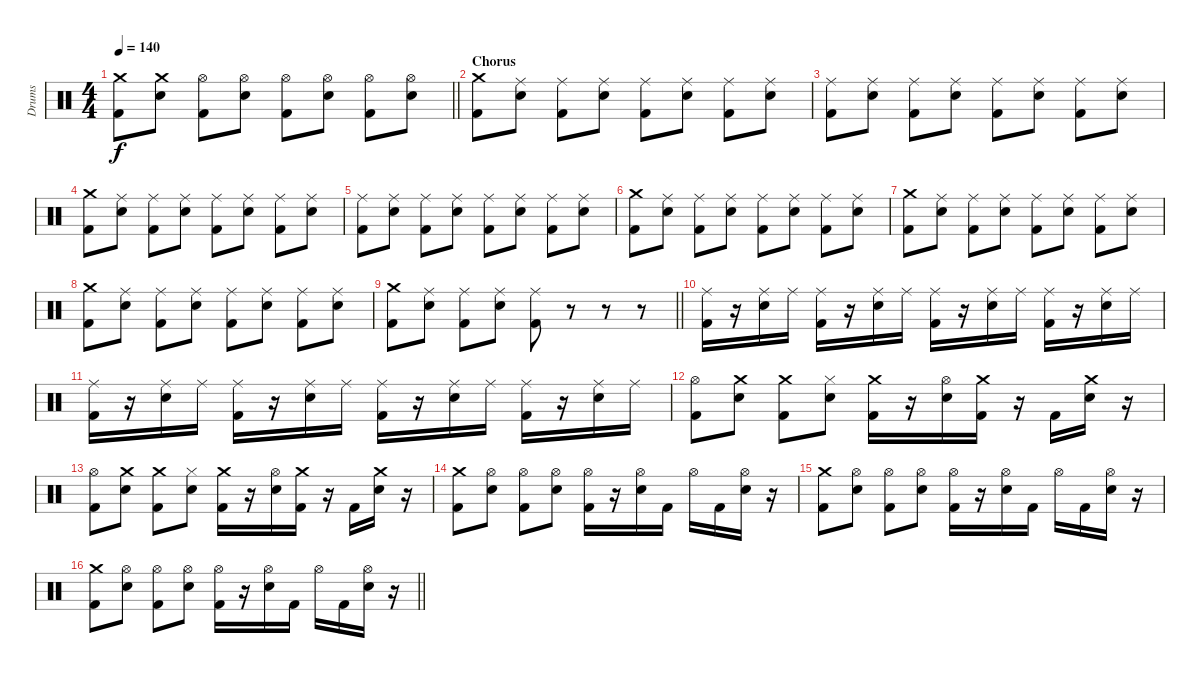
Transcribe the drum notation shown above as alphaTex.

\track ("Drums" "Drums") {instrument percussion}
\staff {score}
\articulation defaults
\ts (4 4)
\tempo 140
\clef neutral
\barLineRight lightlight
\ks c
("Crash medium (hit)" "Kick (hit) 2").8{dy f} ("Crash medium (hit)" "Snare (hit) 2").8 ("Hi-Hat (open)" "Kick (hit) 2").8 ("Hi-Hat (open)" "Snare (hit) 2").8 ("Hi-Hat (open)" "Kick (hit) 2").8 ("Hi-Hat (open)" "Snare (hit) 2").8 ("Hi-Hat (open)" "Kick (hit) 2").8 ("Hi-Hat (open)" "Snare (hit) 2").8 |
\section ("" "Chorus")
("Crash medium (hit)" "Kick (hit) 2").8 ("Ride (middle)" "Snare (hit) 2").8 ("Ride (middle)" "Kick (hit) 2").8 ("Ride (middle)" "Snare (hit) 2").8 ("Ride (middle)" "Kick (hit) 2").8 ("Ride (middle)" "Snare (hit) 2").8 ("Ride (middle)" "Kick (hit) 2").8 ("Ride (middle)" "Snare (hit) 2").8 |
("Ride (middle)" "Kick (hit) 2").8 ("Ride (middle)" "Snare (hit) 2").8 ("Ride (middle)" "Kick (hit) 2").8 ("Ride (middle)" "Snare (hit) 2").8 ("Ride (middle)" "Kick (hit) 2").8 ("Ride (middle)" "Snare (hit) 2").8 ("Ride (middle)" "Kick (hit) 2").8 ("Ride (middle)" "Snare (hit) 2").8 |
("Crash medium (hit)" "Kick (hit) 2").8 ("Ride (middle)" "Snare (hit) 2").8 ("Ride (middle)" "Kick (hit) 2").8 ("Ride (middle)" "Snare (hit) 2").8 ("Ride (middle)" "Kick (hit) 2").8 ("Ride (middle)" "Snare (hit) 2").8 ("Ride (middle)" "Kick (hit) 2").8 ("Ride (middle)" "Snare (hit) 2").8 |
("Ride (middle)" "Kick (hit) 2").8 ("Ride (middle)" "Snare (hit) 2").8 ("Ride (middle)" "Kick (hit) 2").8 ("Ride (middle)" "Snare (hit) 2").8 ("Ride (middle)" "Kick (hit) 2").8 ("Ride (middle)" "Snare (hit) 2").8 ("Ride (middle)" "Kick (hit) 2").8 ("Ride (middle)" "Snare (hit) 2").8 |
("Crash medium (hit)" "Kick (hit) 2").8 ("Ride (middle)" "Snare (hit) 2").8 ("Ride (middle)" "Kick (hit) 2").8 ("Ride (middle)" "Snare (hit) 2").8 ("Ride (middle)" "Kick (hit) 2").8 ("Ride (middle)" "Snare (hit) 2").8 ("Ride (middle)" "Kick (hit) 2").8 ("Ride (middle)" "Snare (hit) 2").8 |
("Crash medium (hit)" "Kick (hit) 2").8 ("Ride (middle)" "Snare (hit) 2").8 ("Ride (middle)" "Kick (hit) 2").8 ("Ride (middle)" "Snare (hit) 2").8 ("Ride (middle)" "Kick (hit) 2").8 ("Ride (middle)" "Snare (hit) 2").8 ("Ride (middle)" "Kick (hit) 2").8 ("Ride (middle)" "Snare (hit) 2").8 |
("Crash medium (hit)" "Kick (hit) 2").8 ("Ride (middle)" "Snare (hit) 2").8 ("Ride (middle)" "Kick (hit) 2").8 ("Ride (middle)" "Snare (hit) 2").8 ("Ride (middle)" "Kick (hit) 2").8 ("Ride (middle)" "Snare (hit) 2").8 ("Ride (middle)" "Kick (hit) 2").8 ("Ride (middle)" "Snare (hit) 2").8 |
\barLineRight lightlight
("Crash medium (hit)" "Kick (hit) 2").8 ("Ride (middle)" "Snare (hit) 2").8 ("Ride (middle)" "Kick (hit) 2").8 ("Ride (middle)" "Snare (hit) 2").8 ("Ride (middle)" "Kick (hit) 2").8 r.8 r.8 r.8 |
\section ("" "")
("Ride (middle)" "Kick (hit) 2").16 r.16 ("Ride (middle)" "Snare (hit) 2").16 "Ride (middle)".16 ("Ride (middle)" "Kick (hit) 2").16 r.16 ("Ride (middle)" "Snare (hit) 2").16 "Ride (middle)".16 ("Ride (middle)" "Kick (hit) 2").16 r.16 ("Ride (middle)" "Snare (hit) 2").16 "Ride (middle)".16 ("Ride (middle)" "Kick (hit) 2").16 r.16 ("Ride (middle)" "Snare (hit) 2").16 "Ride (middle)".16 |
("Ride (middle)" "Kick (hit) 2").16 r.16 ("Ride (middle)" "Snare (hit) 2").16 "Ride (middle)".16 ("Ride (middle)" "Kick (hit) 2").16 r.16 ("Ride (middle)" "Snare (hit) 2").16 "Ride (middle)".16 ("Ride (middle)" "Kick (hit) 2").16 r.16 ("Ride (middle)" "Snare (hit) 2").16 "Ride (middle)".16 ("Ride (middle)" "Kick (hit) 2").16 r.16 ("Ride (middle)" "Snare (hit) 2").16 "Ride (middle)".16 |
("Hi-Hat (open)" "Kick (hit) 2").8 ("Crash medium (hit)" "Snare (hit) 2").8 ("Crash medium (hit)" "Kick (hit) 2").8 ("Hi-Hat (closed)" "Snare (hit) 2").8 ("Crash medium (hit)" "Kick (hit) 2").16 r.16 ("Hi-Hat (open)" "Snare (hit) 2").16 ("Crash medium (hit)" "Kick (hit) 2").16 r.16 "Kick (hit) 2".16 ("Crash medium (hit)" "Snare (hit) 2").16 r.16 |
("Hi-Hat (open)" "Kick (hit) 2").8 ("Crash medium (hit)" "Snare (hit) 2").8 ("Crash medium (hit)" "Kick (hit) 2").8 ("Hi-Hat (closed)" "Snare (hit) 2").8 ("Crash medium (hit)" "Kick (hit) 2").16 r.16 ("Hi-Hat (open)" "Snare (hit) 2").16 ("Crash medium (hit)" "Kick (hit) 2").16 r.16 "Kick (hit) 2".16 ("Crash medium (hit)" "Snare (hit) 2").16 r.16 |
("Crash medium (hit)" "Kick (hit) 2").8 ("Hi-Hat (open)" "Snare (hit) 2").8 ("Hi-Hat (open)" "Kick (hit) 2").8 ("Hi-Hat (open)" "Snare (hit) 2").8 ("Hi-Hat (open)" "Kick (hit) 2").16 r.16 ("Hi-Hat (open)" "Snare (hit) 2").16 "Kick (hit) 2".16 "Hi-Hat (open)".16 "Kick (hit) 2".16 ("Hi-Hat (open)" "Snare (hit) 2").16 r.16 |
("Crash medium (hit)" "Kick (hit) 2").8 ("Hi-Hat (open)" "Snare (hit) 2").8 ("Hi-Hat (open)" "Kick (hit) 2").8 ("Hi-Hat (open)" "Snare (hit) 2").8 ("Hi-Hat (open)" "Kick (hit) 2").16 r.16 ("Hi-Hat (open)" "Snare (hit) 2").16 "Kick (hit) 2".16 "Hi-Hat (open)".16 "Kick (hit) 2".16 ("Hi-Hat (open)" "Snare (hit) 2").16 r.16 |
\barLineRight lightlight
("Crash medium (hit)" "Kick (hit) 2").8 ("Hi-Hat (open)" "Snare (hit) 2").8 ("Hi-Hat (open)" "Kick (hit) 2").8 ("Hi-Hat (open)" "Snare (hit) 2").8 ("Hi-Hat (open)" "Kick (hit) 2").16 r.16 ("Hi-Hat (open)" "Snare (hit) 2").16 "Kick (hit) 2".16 "Hi-Hat (open)".16 "Kick (hit) 2".16 ("Hi-Hat (open)" "Snare (hit) 2").16 r.16
